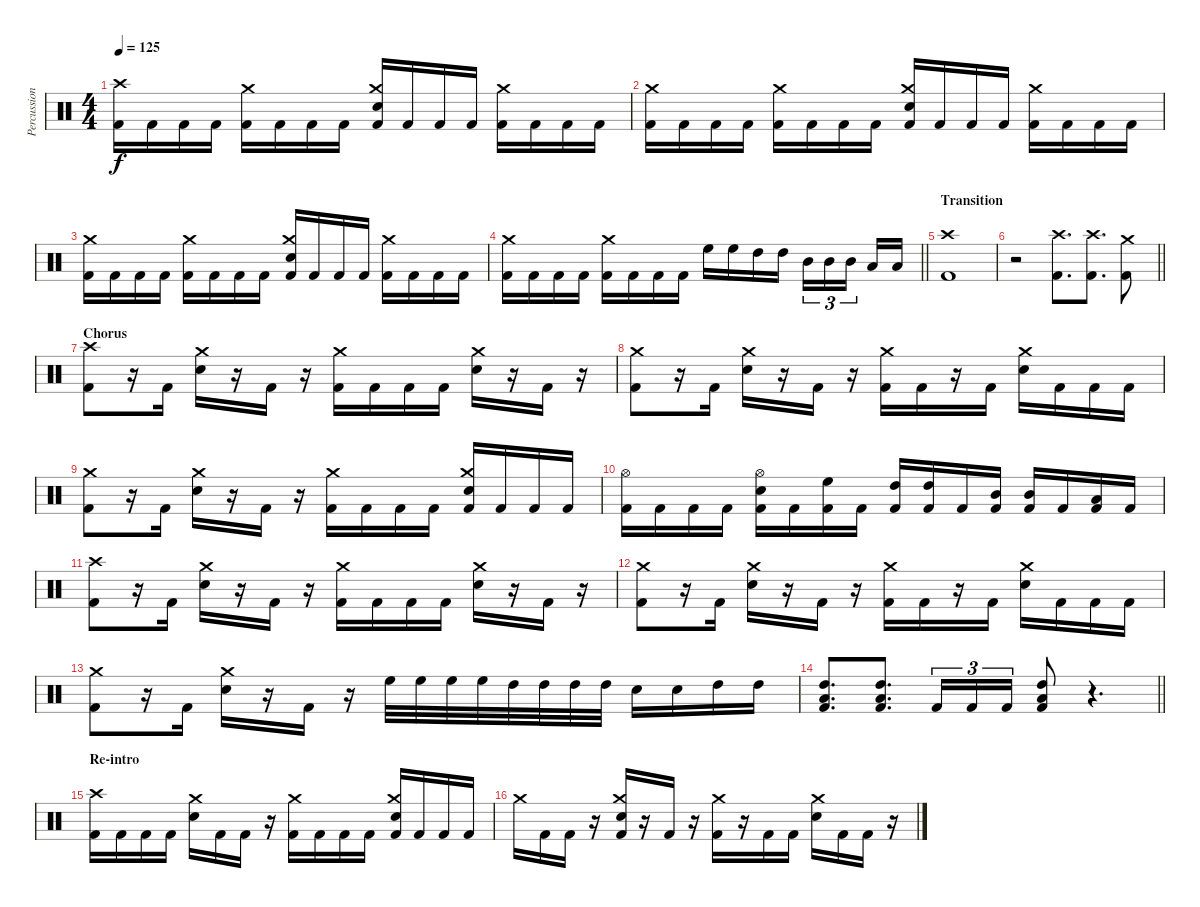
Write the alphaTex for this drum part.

\track ("Percussion" "Percussion") {instrument percussion}
\staff {score}
\articulation defaults
\ts (4 4)
\tempo 125
\clef neutral
\ks c
("Crash high (hit)" "Kick (hit) 2").16{dy f} "Kick (hit) 2".16 "Kick (hit) 2".16 "Kick (hit) 2".16 ("Crash medium (hit)" "Kick (hit) 2").16 "Kick (hit) 2".16 "Kick (hit) 2".16 "Kick (hit) 2".16 ("Crash medium (hit)" "Snare (hit) 2" "Kick (hit) 2").16 "Kick (hit) 2".16 "Kick (hit) 2".16 "Kick (hit) 2".16 ("Crash medium (hit)" "Kick (hit) 2").16 "Kick (hit) 2".16 "Kick (hit) 2".16 "Kick (hit) 2".16 |
("Crash medium (hit)" "Kick (hit) 2").16 "Kick (hit) 2".16 "Kick (hit) 2".16 "Kick (hit) 2".16 ("Crash medium (hit)" "Kick (hit) 2").16 "Kick (hit) 2".16 "Kick (hit) 2".16 "Kick (hit) 2".16 ("Crash medium (hit)" "Snare (hit) 2" "Kick (hit) 2").16 "Kick (hit) 2".16 "Kick (hit) 2".16 "Kick (hit) 2".16 ("Crash medium (hit)" "Kick (hit) 2").16 "Kick (hit) 2".16 "Kick (hit) 2".16 "Kick (hit) 2".16 |
("Crash medium (hit)" "Kick (hit) 2").16 "Kick (hit) 2".16 "Kick (hit) 2".16 "Kick (hit) 2".16 ("Crash medium (hit)" "Kick (hit) 2").16 "Kick (hit) 2".16 "Kick (hit) 2".16 "Kick (hit) 2".16 ("Crash medium (hit)" "Snare (hit) 2" "Kick (hit) 2").16 "Kick (hit) 2".16 "Kick (hit) 2".16 "Kick (hit) 2".16 ("Crash medium (hit)" "Kick (hit) 2").16 "Kick (hit) 2".16 "Kick (hit) 2".16 "Kick (hit) 2".16 |
\barLineRight lightlight
("Crash medium (hit)" "Kick (hit) 2").16 "Kick (hit) 2".16 "Kick (hit) 2".16 "Kick (hit) 2".16 ("Crash medium (hit)" "Kick (hit) 2").16 "Kick (hit) 2".16 "Kick (hit) 2".16 "Kick (hit) 2".16 "High Floor Tom (hit)".16 "High Floor Tom (hit)".16 "High Tom (hit)".16 "High Tom (hit)".16 "Mid Tom (hit)".16{tu (3 2)} "Mid Tom (hit)".16{tu (3 2)} "Mid Tom (hit)".16{tu (3 2) beam splitsecondary} "Low Tom (hit)".16 "Low Tom (hit)".16 |
\section ("" "Transition")
("Crash high (hit)" "Kick (hit) 2").1 |
\barLineRight lightlight
r.2 ("Crash high (hit)" "Kick (hit) 2").8{d} ("Crash high (hit)" "Kick (hit) 2").8{d} ("Crash medium (hit)" "Kick (hit) 2").8 |
\section ("" "Chorus")
("Crash high (hit)" "Kick (hit) 2").8 r.16 "Kick (hit) 2".16 ("Crash medium (hit)" "Snare (hit) 2").16 r.16 "Kick (hit) 2".16 r.16 ("Crash medium (hit)" "Kick (hit) 2").16 "Kick (hit) 2".16 "Kick (hit) 2".16 "Kick (hit) 2".16 ("Crash medium (hit)" "Snare (hit) 2").16 r.16 "Kick (hit) 2".16 r.16 |
("Crash medium (hit)" "Kick (hit) 2").8 r.16 "Kick (hit) 2".16 ("Crash medium (hit)" "Snare (hit) 2").16 r.16 "Kick (hit) 2".16 r.16 ("Crash medium (hit)" "Kick (hit) 2").16 "Kick (hit) 2".16 r.16 "Kick (hit) 2".16 ("Crash medium (hit)" "Snare (hit) 2").16 "Kick (hit) 2".16 "Kick (hit) 2".16 "Kick (hit) 2".16 |
("Crash medium (hit)" "Kick (hit) 2").8 r.16 "Kick (hit) 2".16 ("Crash medium (hit)" "Snare (hit) 2").16 r.16 "Kick (hit) 2".16 r.16 ("Crash medium (hit)" "Kick (hit) 2").16 "Kick (hit) 2".16 "Kick (hit) 2".16 "Kick (hit) 2".16 ("Crash medium (hit)" "Snare (hit) 2" "Kick (hit) 2").16 "Kick (hit) 2".16 "Kick (hit) 2".16 "Kick (hit) 2".16 |
("Hi-Hat (open)" "Kick (hit) 2").16 "Kick (hit) 2".16 "Kick (hit) 2".16 "Kick (hit) 2".16 ("Hi-Hat (open)" "Snare (hit) 2" "Kick (hit) 2").16 "Kick (hit) 2".16 ("High Floor Tom (hit)" "Kick (hit) 2").16 "Kick (hit) 2".16 ("High Tom (hit)" "Kick (hit) 2").16 ("High Tom (hit)" "Kick (hit) 2").16 "Kick (hit) 2".16 ("Mid Tom (hit)" "Kick (hit) 2").16 ("Mid Tom (hit)" "Kick (hit) 2").16 "Kick (hit) 2".16 ("Low Tom (hit)" "Kick (hit) 2").16 "Kick (hit) 2".16 |
("Crash high (hit)" "Kick (hit) 2").8 r.16 "Kick (hit) 2".16 ("Crash medium (hit)" "Snare (hit) 2").16 r.16 "Kick (hit) 2".16 r.16 ("Crash medium (hit)" "Kick (hit) 2").16 "Kick (hit) 2".16 "Kick (hit) 2".16 "Kick (hit) 2".16 ("Crash medium (hit)" "Snare (hit) 2").16 r.16 "Kick (hit) 2".16 r.16 |
("Crash medium (hit)" "Kick (hit) 2").8 r.16 "Kick (hit) 2".16 ("Crash medium (hit)" "Snare (hit) 2").16 r.16 "Kick (hit) 2".16 r.16 ("Crash medium (hit)" "Kick (hit) 2").16 "Kick (hit) 2".16 r.16 "Kick (hit) 2".16 ("Crash medium (hit)" "Snare (hit) 2").16 "Kick (hit) 2".16 "Kick (hit) 2".16 "Kick (hit) 2".16 |
("Crash medium (hit)" "Kick (hit) 2").8 r.16 "Kick (hit) 2".16 ("Crash medium (hit)" "Snare (hit) 2").16 r.16 "Kick (hit) 2".16 r.16 "High Floor Tom (hit)".32 "High Floor Tom (hit)".32 "High Floor Tom (hit)".32 "High Floor Tom (hit)".32 "High Tom (hit)".32 "High Tom (hit)".32 "High Tom (hit)".32 "High Tom (hit)".32 "Snare (hit) 2".16 "Snare (hit) 2".16 "High Tom (hit)".16 "High Tom (hit)".16 |
\barLineRight lightlight
("High Tom (hit)" "Low Tom (hit)" "Kick (hit) 2").8{d} ("High Tom (hit)" "Low Tom (hit)" "Kick (hit) 2").8{d} "Kick (hit) 2".16{tu (3 2)} "Kick (hit) 2".16{tu (3 2)} "Kick (hit) 2".16{tu (3 2)} ("High Tom (hit)" "Low Tom (hit)" "Kick (hit) 2").8 r.4{d} |
\section ("" "Re-intro")
("Crash high (hit)" "Kick (hit) 2").16 "Kick (hit) 2".16 "Kick (hit) 2".16 "Kick (hit) 2".16 ("Crash medium (hit)" "Snare (hit) 2").16 "Kick (hit) 2".16 "Kick (hit) 2".16 r.16 ("Crash medium (hit)" "Kick (hit) 2").16 "Kick (hit) 2".16 "Kick (hit) 2".16 "Kick (hit) 2".16 ("Crash medium (hit)" "Snare (hit) 2" "Kick (hit) 2").16 "Kick (hit) 2".16 "Kick (hit) 2".16 "Kick (hit) 2".16 |
"Crash medium (hit)".16 "Kick (hit) 2".16 "Kick (hit) 2".16 r.16 ("Crash medium (hit)" "Snare (hit) 2" "Kick (hit) 2").16 r.16 "Kick (hit) 2".16 r.16 ("Crash medium (hit)" "Kick (hit) 2").16 r.16 "Kick (hit) 2".16 "Kick (hit) 2".16 ("Crash medium (hit)" "Snare (hit) 2").16 "Kick (hit) 2".16 "Kick (hit) 2".16 r.16
